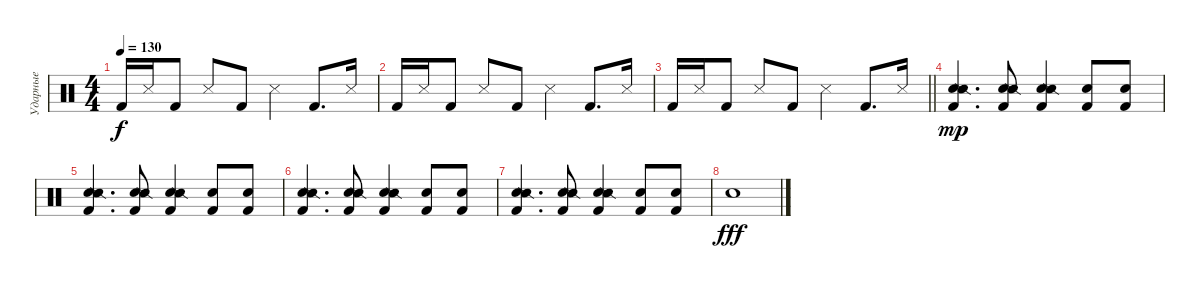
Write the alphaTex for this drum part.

\track ("Ударные" "Ударные") {instrument percussion}
\staff {score}
\articulation defaults
\ts (4 4)
\tempo 130
\clef neutral
\ks c "Kick (hit) 2".16{dy f} "Snare (side stick) 3".16 "Kick (hit) 2".8 "Snare (side stick) 3".8 "Kick (hit) 2".8 "Snare (side stick) 3".4 "Kick (hit) 2".8{d} "Snare (side stick) 3".16
|
"Kick (hit) 2".16 "Snare (side stick) 3".16 "Kick (hit) 2".8 "Snare (side stick) 3".8 "Kick (hit) 2".8 "Snare (side stick) 3".4 "Kick (hit) 2".8{d} "Snare (side stick) 3".16 |
\barLineRight lightlight "Kick (hit) 2".16 "Snare (side stick) 3".16 "Kick (hit) 2".8 "Snare (side stick) 3".8 "Kick (hit) 2".8 "Snare (side stick) 3".4 "Kick (hit) 2".8{d} "Snare (side stick) 3".16
|
("Snare (hit) 2" "Kick (hit) 2" "Snare (side stick) 2").4{d dy mp} ("Snare (hit) 2" "Kick (hit) 2" "Snare (side stick) 2").8 ("Snare (hit) 2" "Kick (hit) 2" "Snare (side stick) 2").4 ("Snare (hit) 2" "Kick (hit) 2").8 ("Snare (hit) 2" "Kick (hit) 2").8 |
("Snare (hit) 2" "Kick (hit) 2" "Snare (side stick) 2").4{d} ("Snare (hit) 2" "Kick (hit) 2" "Snare (side stick) 2").8 ("Snare (hit) 2" "Kick (hit) 2" "Snare (side stick) 2").4 ("Snare (hit) 2" "Kick (hit) 2").8 ("Snare (hit) 2" "Kick (hit) 2").8 |
("Snare (hit) 2" "Kick (hit) 2" "Snare (side stick) 2").4{d} ("Snare (hit) 2" "Kick (hit) 2" "Snare (side stick) 2").8 ("Snare (hit) 2" "Kick (hit) 2" "Snare (side stick) 2").4 ("Snare (hit) 2" "Kick (hit) 2").8 ("Snare (hit) 2" "Kick (hit) 2").8 |
("Snare (hit) 2" "Kick (hit) 2" "Snare (side stick) 2").4{d} ("Snare (hit) 2" "Kick (hit) 2" "Snare (side stick) 2").8 ("Snare (hit) 2" "Kick (hit) 2" "Snare (side stick) 2").4 ("Snare (hit) 2" "Kick (hit) 2").8 ("Snare (hit) 2" "Kick (hit) 2").8 |
"Snare (hit) 2".1{dy fff}
